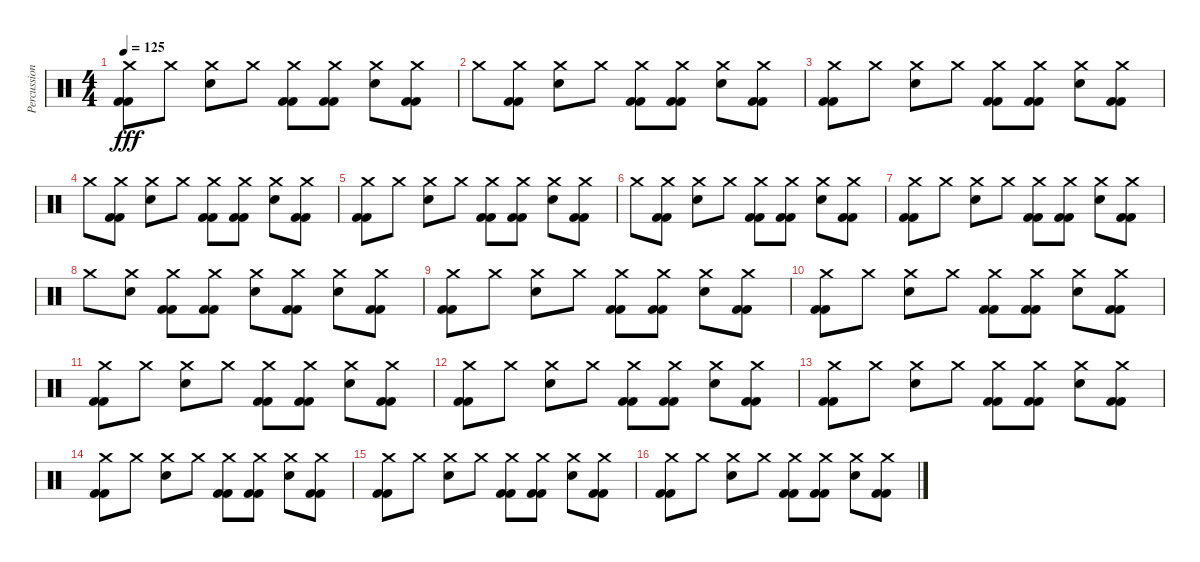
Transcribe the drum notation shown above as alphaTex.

\track ("Percussion" "Percussion") {instrument percussion}
\staff {score}
\articulation defaults
\ts (4 4)
\tempo 125
\clef neutral
\ks c
("Crash medium (hit)" "Kick (hit) 2" "Kick (hit) 2").8{dy fff} "Crash medium (hit)".8 ("Crash medium (hit)" "Snare (hit) 2").8 "Crash medium (hit)".8 ("Crash medium (hit)" "Kick (hit) 2" "Kick (hit) 2").8 ("Crash medium (hit)" "Kick (hit) 2" "Kick (hit) 2").8 ("Crash medium (hit)" "Snare (hit) 2").8 ("Crash medium (hit)" "Kick (hit) 2" "Kick (hit) 2").8 |
"Crash medium (hit)".8 ("Crash medium (hit)" "Kick (hit) 2" "Kick (hit) 2").8 ("Crash medium (hit)" "Snare (hit) 2").8 "Crash medium (hit)".8 ("Crash medium (hit)" "Kick (hit) 2" "Kick (hit) 2").8 ("Crash medium (hit)" "Kick (hit) 2" "Kick (hit) 2").8 ("Crash medium (hit)" "Snare (hit) 2").8 ("Crash medium (hit)" "Kick (hit) 2" "Kick (hit) 2").8 |
("Crash medium (hit)" "Kick (hit) 2" "Kick (hit) 2").8 "Crash medium (hit)".8 ("Crash medium (hit)" "Snare (hit) 2").8 "Crash medium (hit)".8 ("Crash medium (hit)" "Kick (hit) 2" "Kick (hit) 2").8 ("Crash medium (hit)" "Kick (hit) 2" "Kick (hit) 2").8 ("Crash medium (hit)" "Snare (hit) 2").8 ("Crash medium (hit)" "Kick (hit) 2" "Kick (hit) 2").8 |
"Crash medium (hit)".8 ("Crash medium (hit)" "Kick (hit) 2" "Kick (hit) 2").8 ("Crash medium (hit)" "Snare (hit) 2").8 "Crash medium (hit)".8 ("Crash medium (hit)" "Kick (hit) 2" "Kick (hit) 2").8 ("Crash medium (hit)" "Kick (hit) 2" "Kick (hit) 2").8 ("Crash medium (hit)" "Snare (hit) 2").8 ("Crash medium (hit)" "Kick (hit) 2" "Kick (hit) 2").8 |
("Crash medium (hit)" "Kick (hit) 2" "Kick (hit) 2").8 "Crash medium (hit)".8 ("Crash medium (hit)" "Snare (hit) 2").8 "Crash medium (hit)".8 ("Crash medium (hit)" "Kick (hit) 2" "Kick (hit) 2").8 ("Crash medium (hit)" "Kick (hit) 2" "Kick (hit) 2").8 ("Crash medium (hit)" "Snare (hit) 2").8 ("Crash medium (hit)" "Kick (hit) 2" "Kick (hit) 2").8 |
"Crash medium (hit)".8 ("Crash medium (hit)" "Kick (hit) 2" "Kick (hit) 2").8 ("Crash medium (hit)" "Snare (hit) 2").8 "Crash medium (hit)".8 ("Crash medium (hit)" "Kick (hit) 2" "Kick (hit) 2").8 ("Crash medium (hit)" "Kick (hit) 2" "Kick (hit) 2").8 ("Crash medium (hit)" "Snare (hit) 2").8 ("Crash medium (hit)" "Kick (hit) 2" "Kick (hit) 2").8 |
("Crash medium (hit)" "Kick (hit) 2" "Kick (hit) 2").8 "Crash medium (hit)".8 ("Crash medium (hit)" "Snare (hit) 2").8 "Crash medium (hit)".8 ("Crash medium (hit)" "Kick (hit) 2" "Kick (hit) 2").8 ("Crash medium (hit)" "Kick (hit) 2" "Kick (hit) 2").8 ("Crash medium (hit)" "Snare (hit) 2").8 ("Crash medium (hit)" "Kick (hit) 2" "Kick (hit) 2").8 |
"Crash medium (hit)".8 ("Crash medium (hit)" "Snare (hit) 2").8 ("Crash medium (hit)" "Kick (hit) 2" "Kick (hit) 2").8 ("Crash medium (hit)" "Kick (hit) 2" "Kick (hit) 2").8 ("Crash medium (hit)" "Snare (hit) 2").8 ("Crash medium (hit)" "Kick (hit) 2" "Kick (hit) 2").8 ("Crash medium (hit)" "Snare (hit) 2").8 ("Crash medium (hit)" "Kick (hit) 2" "Kick (hit) 2").8 |
("Crash medium (hit)" "Kick (hit) 2" "Kick (hit) 2").8 "Crash medium (hit)".8 ("Crash medium (hit)" "Snare (hit) 2").8 "Crash medium (hit)".8 ("Crash medium (hit)" "Kick (hit) 2" "Kick (hit) 2").8 ("Crash medium (hit)" "Kick (hit) 2" "Kick (hit) 2").8 ("Crash medium (hit)" "Snare (hit) 2").8 ("Crash medium (hit)" "Kick (hit) 2" "Kick (hit) 2").8 |
("Crash medium (hit)" "Kick (hit) 2" "Kick (hit) 2").8 "Crash medium (hit)".8 ("Crash medium (hit)" "Snare (hit) 2").8 "Crash medium (hit)".8 ("Crash medium (hit)" "Kick (hit) 2" "Kick (hit) 2").8 ("Crash medium (hit)" "Kick (hit) 2" "Kick (hit) 2").8 ("Crash medium (hit)" "Snare (hit) 2").8 ("Crash medium (hit)" "Kick (hit) 2" "Kick (hit) 2").8 |
("Crash medium (hit)" "Kick (hit) 2" "Kick (hit) 2").8 "Crash medium (hit)".8 ("Crash medium (hit)" "Snare (hit) 2").8 "Crash medium (hit)".8 ("Crash medium (hit)" "Kick (hit) 2" "Kick (hit) 2").8 ("Crash medium (hit)" "Kick (hit) 2" "Kick (hit) 2").8 ("Crash medium (hit)" "Snare (hit) 2").8 ("Crash medium (hit)" "Kick (hit) 2" "Kick (hit) 2").8 |
("Crash medium (hit)" "Kick (hit) 2" "Kick (hit) 2").8 "Crash medium (hit)".8 ("Crash medium (hit)" "Snare (hit) 2").8 "Crash medium (hit)".8 ("Crash medium (hit)" "Kick (hit) 2" "Kick (hit) 2").8 ("Crash medium (hit)" "Kick (hit) 2" "Kick (hit) 2").8 ("Crash medium (hit)" "Snare (hit) 2").8 ("Crash medium (hit)" "Kick (hit) 2" "Kick (hit) 2").8 |
("Crash medium (hit)" "Kick (hit) 2" "Kick (hit) 2").8 "Crash medium (hit)".8 ("Crash medium (hit)" "Snare (hit) 2").8 "Crash medium (hit)".8 ("Crash medium (hit)" "Kick (hit) 2" "Kick (hit) 2").8 ("Crash medium (hit)" "Kick (hit) 2" "Kick (hit) 2").8 ("Crash medium (hit)" "Snare (hit) 2").8 ("Crash medium (hit)" "Kick (hit) 2" "Kick (hit) 2").8 |
("Crash medium (hit)" "Kick (hit) 2" "Kick (hit) 2").8 "Crash medium (hit)".8 ("Crash medium (hit)" "Snare (hit) 2").8 "Crash medium (hit)".8 ("Crash medium (hit)" "Kick (hit) 2" "Kick (hit) 2").8 ("Crash medium (hit)" "Kick (hit) 2" "Kick (hit) 2").8 ("Crash medium (hit)" "Snare (hit) 2").8 ("Crash medium (hit)" "Kick (hit) 2" "Kick (hit) 2").8 |
("Crash medium (hit)" "Kick (hit) 2" "Kick (hit) 2").8 "Crash medium (hit)".8 ("Crash medium (hit)" "Snare (hit) 2").8 "Crash medium (hit)".8 ("Crash medium (hit)" "Kick (hit) 2" "Kick (hit) 2").8 ("Crash medium (hit)" "Kick (hit) 2" "Kick (hit) 2").8 ("Crash medium (hit)" "Snare (hit) 2").8 ("Crash medium (hit)" "Kick (hit) 2" "Kick (hit) 2").8 |
("Crash medium (hit)" "Kick (hit) 2" "Kick (hit) 2").8 "Crash medium (hit)".8 ("Crash medium (hit)" "Snare (hit) 2").8 "Crash medium (hit)".8 ("Crash medium (hit)" "Kick (hit) 2" "Kick (hit) 2").8 ("Crash medium (hit)" "Kick (hit) 2" "Kick (hit) 2").8 ("Crash medium (hit)" "Snare (hit) 2").8 ("Crash medium (hit)" "Kick (hit) 2" "Kick (hit) 2").8
